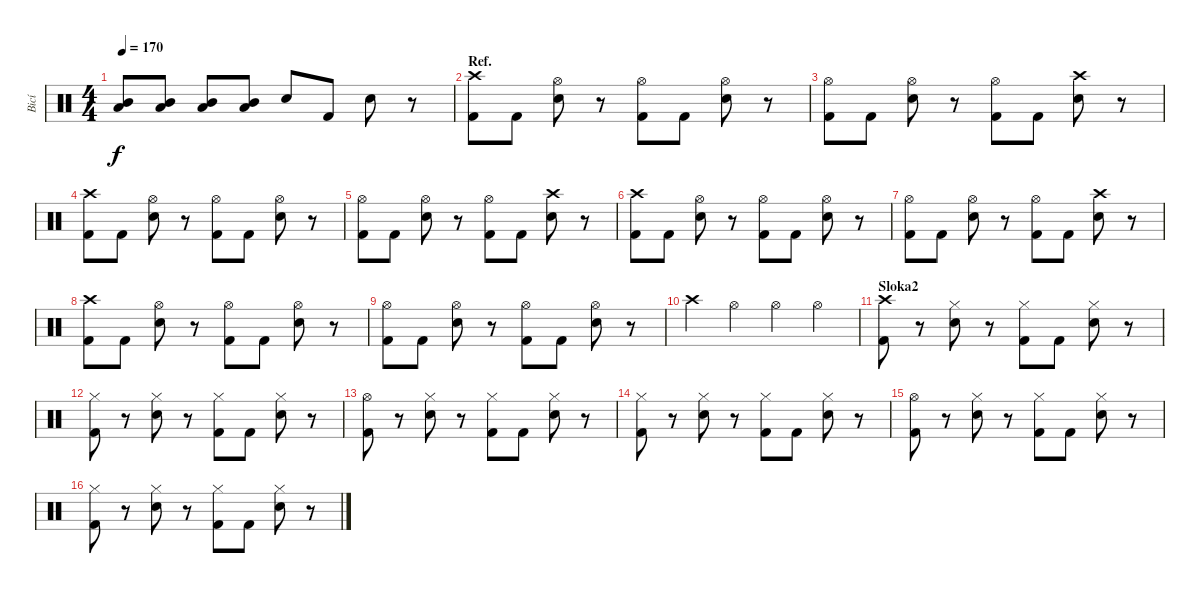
\track ("Bicí" "Bicí") {instrument percussion}
\staff {score}
\articulation defaults
\ts (4 4)
\tempo 170
\clef neutral
\ks c
("Low Tom (hit)" "Mid Tom (hit)").8{dy f} ("Low Tom (hit)" "Mid Tom (hit)").8 ("Low Tom (hit)" "Mid Tom (hit)").8 ("Low Tom (hit)" "Mid Tom (hit)").8 "Snare (hit) 2".8 "Kick (hit) 2".8 "Snare (hit) 2".8 r.8 |
\section ("" "Ref.")
("Crash high (hit)" "Kick (hit) 2").8 "Kick (hit) 2".8 ("Hi-Hat (open)" "Snare (hit) 2").8 r.8 ("Hi-Hat (open)" "Kick (hit) 2").8 "Kick (hit) 2".8 ("Hi-Hat (open)" "Snare (hit) 2").8 r.8 |
("Hi-Hat (open)" "Kick (hit) 2").8 "Kick (hit) 2".8 ("Hi-Hat (open)" "Snare (hit) 2").8 r.8 ("Hi-Hat (open)" "Kick (hit) 2").8 "Kick (hit) 2".8 ("Crash high (hit)" "Snare (hit) 2").8 r.8 |
("Crash high (hit)" "Kick (hit) 2").8 "Kick (hit) 2".8 ("Hi-Hat (open)" "Snare (hit) 2").8 r.8 ("Hi-Hat (open)" "Kick (hit) 2").8 "Kick (hit) 2".8 ("Hi-Hat (open)" "Snare (hit) 2").8 r.8 |
("Hi-Hat (open)" "Kick (hit) 2").8 "Kick (hit) 2".8 ("Hi-Hat (open)" "Snare (hit) 2").8 r.8 ("Hi-Hat (open)" "Kick (hit) 2").8 "Kick (hit) 2".8 ("Crash high (hit)" "Snare (hit) 2").8 r.8 |
("Crash high (hit)" "Kick (hit) 2").8 "Kick (hit) 2".8 ("Hi-Hat (open)" "Snare (hit) 2").8 r.8 ("Hi-Hat (open)" "Kick (hit) 2").8 "Kick (hit) 2".8 ("Hi-Hat (open)" "Snare (hit) 2").8 r.8 |
("Hi-Hat (open)" "Kick (hit) 2").8 "Kick (hit) 2".8 ("Hi-Hat (open)" "Snare (hit) 2").8 r.8 ("Hi-Hat (open)" "Kick (hit) 2").8 "Kick (hit) 2".8 ("Crash high (hit)" "Snare (hit) 2").8 r.8 |
("Crash high (hit)" "Kick (hit) 2").8 "Kick (hit) 2".8 ("Hi-Hat (open)" "Snare (hit) 2").8 r.8 ("Hi-Hat (open)" "Kick (hit) 2").8 "Kick (hit) 2".8 ("Hi-Hat (open)" "Snare (hit) 2").8 r.8 |
("Hi-Hat (open)" "Kick (hit) 2").8 "Kick (hit) 2".8 ("Hi-Hat (open)" "Snare (hit) 2").8 r.8 ("Hi-Hat (open)" "Kick (hit) 2").8 "Kick (hit) 2".8 ("Hi-Hat (open)" "Snare (hit) 2").8 r.8 |
"Crash high (hit)".4 "Hi-Hat (open)".4 "Hi-Hat (open)".4 "Hi-Hat (open)".4 |
\section ("" "Sloka2")
("Crash high (hit)" "Kick (hit) 2").8 r.8 ("Hi-Hat (closed)" "Snare (hit) 2").8 r.8 ("Hi-Hat (closed)" "Kick (hit) 2").8 "Kick (hit) 2".8 ("Hi-Hat (closed)" "Snare (hit) 2").8 r.8 |
("Hi-Hat (closed)" "Kick (hit) 2").8 r.8 ("Hi-Hat (closed)" "Snare (hit) 2").8 r.8 ("Hi-Hat (closed)" "Kick (hit) 2").8 "Kick (hit) 2".8 ("Hi-Hat (closed)" "Snare (hit) 2").8 r.8 |
("Hi-Hat (open)" "Kick (hit) 2").8 r.8 ("Hi-Hat (closed)" "Snare (hit) 2").8 r.8 ("Hi-Hat (closed)" "Kick (hit) 2").8 "Kick (hit) 2".8 ("Hi-Hat (closed)" "Snare (hit) 2").8 r.8 |
("Hi-Hat (closed)" "Kick (hit) 2").8 r.8 ("Hi-Hat (closed)" "Snare (hit) 2").8 r.8 ("Hi-Hat (closed)" "Kick (hit) 2").8 "Kick (hit) 2".8 ("Hi-Hat (closed)" "Snare (hit) 2").8 r.8 |
("Hi-Hat (open)" "Kick (hit) 2").8 r.8 ("Hi-Hat (closed)" "Snare (hit) 2").8 r.8 ("Hi-Hat (closed)" "Kick (hit) 2").8 "Kick (hit) 2".8 ("Hi-Hat (closed)" "Snare (hit) 2").8 r.8 |
("Hi-Hat (closed)" "Kick (hit) 2").8 r.8 ("Hi-Hat (closed)" "Snare (hit) 2").8 r.8 ("Hi-Hat (closed)" "Kick (hit) 2").8 "Kick (hit) 2".8 ("Hi-Hat (closed)" "Snare (hit) 2").8 r.8
